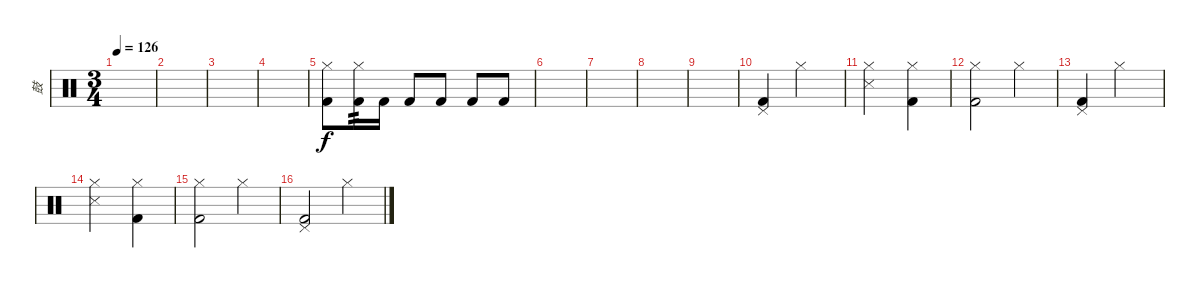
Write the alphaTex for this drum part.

\track ("鼓" "鼓") {instrument percussion}
\staff {score}
\articulation defaults
\ts (3 4)
\tempo 126
\clef neutral
\ks c
|
|
|
|
("Kick (hit) 2" "Hi-Hat (closed)").8 ("Kick (hit) 2" "Hi-Hat (closed)").16{tp 2} "Kick (hit) 2".16 "Kick (hit) 2".8 "Kick (hit) 2".8 "Kick (hit) 2".8 "Kick (hit) 2".8 |
|
|
|
|
("Kick (hit) 2" "Pedal Hi-Hat (hit)").4 "Hi-Hat (closed)".2 |
("Snare (side stick) 3" "Hi-Hat (closed)").2 ("Kick (hit) 2" "Hi-Hat (closed)").4 |
("Kick (hit) 2" "Hi-Hat (closed)").2 "Hi-Hat (closed)".4 |
("Kick (hit) 2" "Pedal Hi-Hat (hit)").4 "Hi-Hat (closed)".2 |
("Snare (side stick) 3" "Hi-Hat (closed)").2 ("Kick (hit) 2" "Hi-Hat (closed)").4 |
("Kick (hit) 2" "Hi-Hat (closed)").2 "Hi-Hat (closed)".4 |
("Kick (hit) 2" "Pedal Hi-Hat (hit)").2 "Hi-Hat (closed)".4
